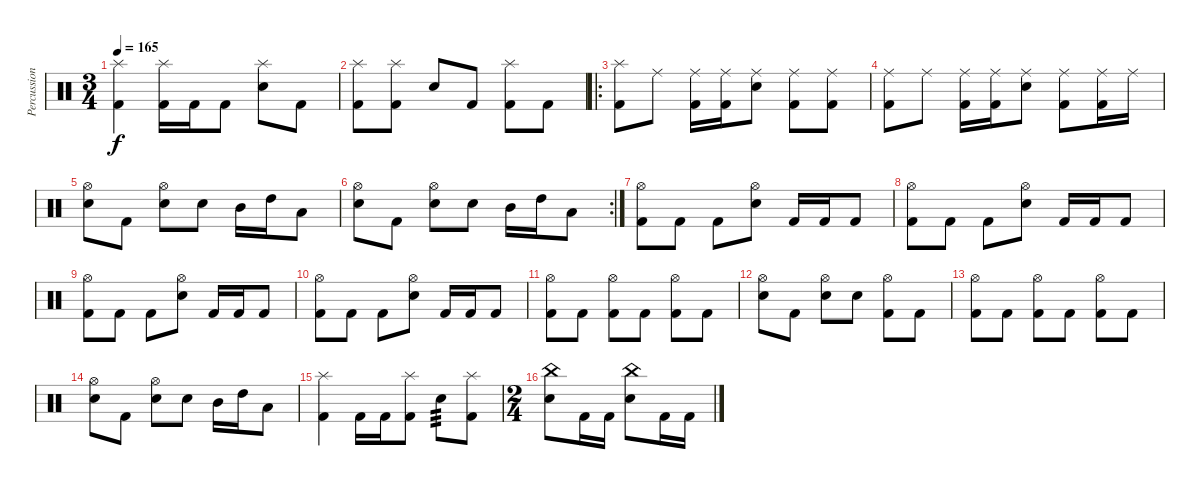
\track ("Percussion" "Percussion") {instrument percussion}
\staff {score}
\articulation defaults
\ts (3 4)
\tempo 165
\clef neutral
\ks c
("Splash (hit)" "Kick (hit) 2").4{dy f} ("Splash (hit)" "Kick (hit) 2").16 "Kick (hit) 2".16 "Kick (hit) 2".8 ("Splash (hit)" "Electric Snare (hit)").8 "Kick (hit) 2".8 |
("Splash (hit)" "Kick (hit) 2").8 ("Splash (hit)" "Kick (hit) 2").8 "Electric Snare (hit)".8 "Kick (hit) 2".8 ("Splash (hit)" "Kick (hit) 2").8 "Kick (hit) 2".8 |
\ro
("Splash (hit)" "Kick (hit) 2").8 "Ride (middle)".8 ("Ride (middle)" "Kick (hit) 2").16 ("Ride (middle)" "Kick (hit) 2").16 ("Ride (middle)" "Electric Snare (hit)").8 ("Ride (middle)" "Kick (hit) 2").8 ("Ride (middle)" "Kick (hit) 2").8 |
("Ride (middle)" "Kick (hit) 2").8 "Ride (middle)".8 ("Ride (middle)" "Kick (hit) 2").16 ("Ride (middle)" "Kick (hit) 2").16 ("Ride (middle)" "Electric Snare (hit)").8 ("Ride (middle)" "Kick (hit) 2").8 ("Ride (middle)" "Kick (hit) 2").16 "Ride (middle)".16 |
("Hi-Hat (open)" "Electric Snare (hit)").8 "Kick (hit) 2".8 ("Hi-Hat (open)" "Electric Snare (hit)").8 "Electric Snare (hit)".8 "Mid Tom (hit)".16 "High Tom (hit)".16 "Low Tom (hit)".8 |
\rc 2
("Hi-Hat (open)" "Electric Snare (hit)").8 "Kick (hit) 2".8 ("Hi-Hat (open)" "Electric Snare (hit)").8 "Electric Snare (hit)".8 "Mid Tom (hit)".16 "High Tom (hit)".16 "Low Tom (hit)".8 |
("Hi-Hat (open)" "Kick (hit) 2").8 "Kick (hit) 2".8 "Kick (hit) 2".8 ("Hi-Hat (open)" "Electric Snare (hit)").8 "Kick (hit) 2".16 "Kick (hit) 2".16 "Kick (hit) 2".8 |
("Hi-Hat (open)" "Kick (hit) 2").8 "Kick (hit) 2".8 "Kick (hit) 2".8 ("Hi-Hat (open)" "Electric Snare (hit)").8 "Kick (hit) 2".16 "Kick (hit) 2".16 "Kick (hit) 2".8 |
("Hi-Hat (open)" "Kick (hit) 2").8 "Kick (hit) 2".8 "Kick (hit) 2".8 ("Hi-Hat (open)" "Electric Snare (hit)").8 "Kick (hit) 2".16 "Kick (hit) 2".16 "Kick (hit) 2".8 |
("Hi-Hat (open)" "Kick (hit) 2").8 "Kick (hit) 2".8 "Kick (hit) 2".8 ("Hi-Hat (open)" "Electric Snare (hit)").8 "Kick (hit) 2".16 "Kick (hit) 2".16 "Kick (hit) 2".8 |
("Hi-Hat (open)" "Kick (hit) 2").8 "Kick (hit) 2".8 ("Hi-Hat (open)" "Kick (hit) 2").8 "Kick (hit) 2".8 ("Hi-Hat (open)" "Kick (hit) 2").8 "Kick (hit) 2".8 |
("Hi-Hat (open)" "Electric Snare (hit)").8 "Kick (hit) 2".8 ("Hi-Hat (open)" "Electric Snare (hit)").8 "Electric Snare (hit)".8 ("Hi-Hat (open)" "Kick (hit) 2").8 "Kick (hit) 2".8 |
("Hi-Hat (open)" "Kick (hit) 2").8 "Kick (hit) 2".8 ("Hi-Hat (open)" "Kick (hit) 2").8 "Kick (hit) 2".8 ("Hi-Hat (open)" "Kick (hit) 2").8 "Kick (hit) 2".8 |
("Hi-Hat (open)" "Electric Snare (hit)").8 "Kick (hit) 2".8 ("Hi-Hat (open)" "Electric Snare (hit)").8 "Electric Snare (hit)".8 "Mid Tom (hit)".16 "High Tom (hit)".16 "Low Tom (hit)".8 |
("Splash (hit)" "Kick (hit) 2").4 "Kick (hit) 2".16 "Kick (hit) 2".16 ("Splash (hit)" "Kick (hit) 2").8 "Electric Snare (hit)".8{tp 3} ("Splash (hit)" "Kick (hit) 2").8 |
\ts (2 4)
("China (hit)" "Electric Snare (hit)").8 "Kick (hit) 2".16 "Kick (hit) 2".16 ("China (hit)" "Electric Snare (hit)").8 "Kick (hit) 2".16 "Kick (hit) 2".16
